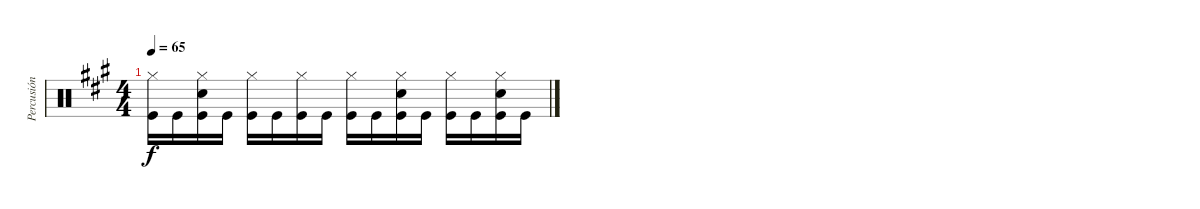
\track ("Percusión" "Percusión") {instrument percussion}
\staff {score}
\articulation defaults
\ts (4 4)
\tempo 65
\clef neutral
\ks f#minor
("Hi-Hat (closed)" "Kick (hit)").16{dy f} "Kick (hit)".16 ("Hi-Hat (closed)" "Snare (hit) 2" "Kick (hit)").16 "Kick (hit)".16 ("Hi-Hat (closed)" "Kick (hit)").16 "Kick (hit)".16 ("Hi-Hat (closed)" "Kick (hit)").16 "Kick (hit)".16 ("Hi-Hat (closed)" "Kick (hit)").16 "Kick (hit)".16 ("Hi-Hat (closed)" "Snare (hit) 2" "Kick (hit)").16 "Kick (hit)".16 ("Hi-Hat (closed)" "Kick (hit)").16 "Kick (hit)".16 ("Hi-Hat (closed)" "Snare (hit) 2" "Kick (hit)").16 "Kick (hit)".16
